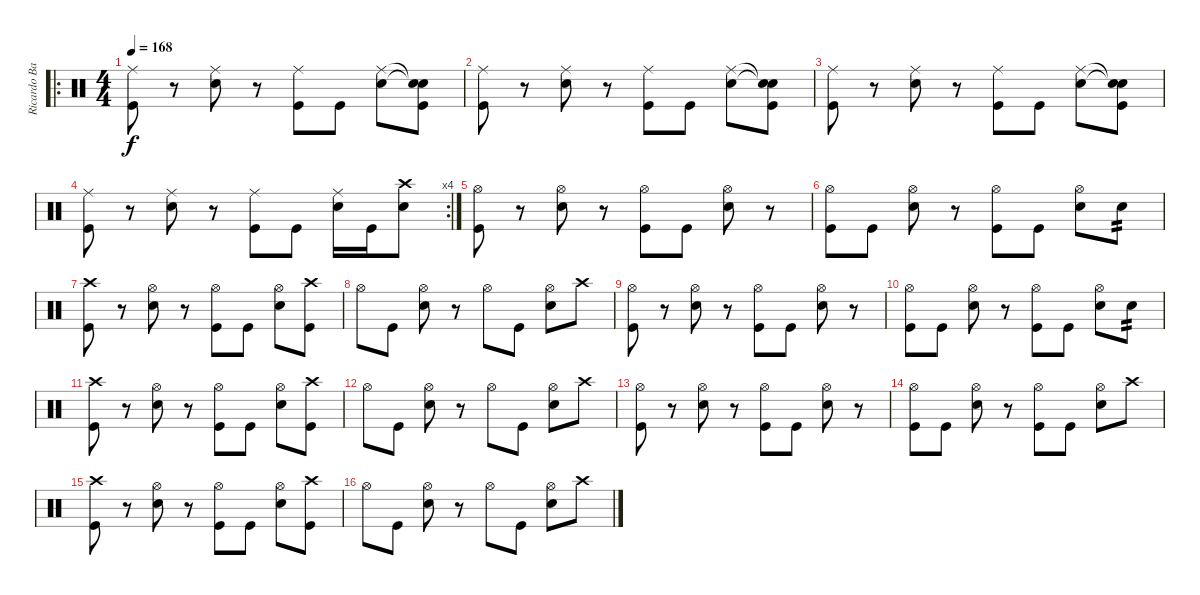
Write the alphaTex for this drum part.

\track ("Ricardo Barrenechea" "Ricardo Ba") {instrument percussion}
\staff {score}
\articulation defaults
\ro
\ts (4 4)
\tempo 168
\clef neutral
\ks c
("Ride (middle)" "Kick (hit)").8{dy f} r.8 ("Ride (middle)" "Snare (hit) 2").8 r.8 ("Ride (middle)" "Kick (hit)").8 "Kick (hit)".8 ("Ride (middle)" "Snare (hit) 2").8 ("Snare (hit)"{t} "Snare (hit)"{t} "Kick (hit)").8 |
("Ride (middle)" "Kick (hit)").8 r.8 ("Ride (middle)" "Snare (hit) 2").8 r.8 ("Ride (middle)" "Kick (hit)").8 "Kick (hit)".8 ("Ride (middle)" "Snare (hit) 2").8 ("Snare (hit)"{t} "Snare (hit)"{t} "Kick (hit)").8 |
("Ride (middle)" "Kick (hit)").8 r.8 ("Ride (middle)" "Snare (hit) 2").8 r.8 ("Ride (middle)" "Kick (hit)").8 "Kick (hit)".8 ("Ride (middle)" "Snare (hit) 2").8 ("Snare (hit)"{t} "Snare (hit)"{t} "Kick (hit)").8 |
\rc 4
("Ride (middle)" "Kick (hit)").8 r.8 ("Ride (middle)" "Snare (hit) 2").8 r.8 ("Ride (middle)" "Kick (hit)").8 "Kick (hit)".8 ("Ride (middle)" "Snare (hit) 2").16 "Kick (hit)".16 ("Crash high (hit)" "Snare (hit) 2").8 |
("Hi-Hat (open)" "Kick (hit)").8 r.8 ("Hi-Hat (open)" "Snare (hit) 2").8 r.8 ("Hi-Hat (open)" "Kick (hit)").8 "Kick (hit)".8 ("Hi-Hat (open)" "Snare (hit) 2").8 r.8 |
("Hi-Hat (open)" "Kick (hit)").8 "Kick (hit)".8 ("Hi-Hat (open)" "Snare (hit) 2").8 r.8 ("Hi-Hat (open)" "Kick (hit)").8 "Kick (hit)".8 ("Hi-Hat (open)" "Snare (hit) 2").8 "Snare (hit) 2".8{tp 2} |
("Crash high (hit)" "Kick (hit)").8 r.8 ("Hi-Hat (open)" "Snare (hit) 2").8 r.8 ("Hi-Hat (open)" "Kick (hit)").8 "Kick (hit)".8 ("Hi-Hat (open)" "Snare (hit) 2").8 ("Crash high (hit)" "Kick (hit)").8 |
"Hi-Hat (open)".8 "Kick (hit)".8 ("Hi-Hat (open)" "Snare (hit) 2").8 r.8 "Hi-Hat (open)".8 "Kick (hit)".8 ("Hi-Hat (open)" "Snare (hit) 2").8 "Crash high (hit)".8 |
("Hi-Hat (open)" "Kick (hit)").8 r.8 ("Hi-Hat (open)" "Snare (hit) 2").8 r.8 ("Hi-Hat (open)" "Kick (hit)").8 "Kick (hit)".8 ("Hi-Hat (open)" "Snare (hit) 2").8 r.8 |
("Hi-Hat (open)" "Kick (hit)").8 "Kick (hit)".8 ("Hi-Hat (open)" "Snare (hit) 2").8 r.8 ("Hi-Hat (open)" "Kick (hit)").8 "Kick (hit)".8 ("Hi-Hat (open)" "Snare (hit) 2").8 "Snare (hit) 2".8{tp 2} |
("Crash high (hit)" "Kick (hit)").8 r.8 ("Hi-Hat (open)" "Snare (hit) 2").8 r.8 ("Hi-Hat (open)" "Kick (hit)").8 "Kick (hit)".8 ("Hi-Hat (open)" "Snare (hit) 2").8 ("Crash high (hit)" "Kick (hit)").8 |
"Hi-Hat (open)".8 "Kick (hit)".8 ("Hi-Hat (open)" "Snare (hit) 2").8 r.8 "Hi-Hat (open)".8 "Kick (hit)".8 ("Hi-Hat (open)" "Snare (hit) 2").8 "Crash high (hit)".8 |
("Hi-Hat (open)" "Kick (hit)").8 r.8 ("Hi-Hat (open)" "Snare (hit) 2").8 r.8 ("Hi-Hat (open)" "Kick (hit)").8 "Kick (hit)".8 ("Hi-Hat (open)" "Snare (hit) 2").8 r.8 |
("Hi-Hat (open)" "Kick (hit)").8 "Kick (hit)".8 ("Hi-Hat (open)" "Snare (hit) 2").8 r.8 ("Hi-Hat (open)" "Kick (hit)").8 "Kick (hit)".8 ("Hi-Hat (open)" "Snare (hit) 2").8 "Crash high (hit)".8 |
("Crash high (hit)" "Kick (hit)").8 r.8 ("Hi-Hat (open)" "Snare (hit) 2").8 r.8 ("Hi-Hat (open)" "Kick (hit)").8 "Kick (hit)".8 ("Hi-Hat (open)" "Snare (hit) 2").8 ("Crash high (hit)" "Kick (hit)").8 |
"Hi-Hat (open)".8 "Kick (hit)".8 ("Hi-Hat (open)" "Snare (hit) 2").8 r.8 "Hi-Hat (open)".8 "Kick (hit)".8 ("Hi-Hat (open)" "Snare (hit) 2").8 "Crash high (hit)".8
